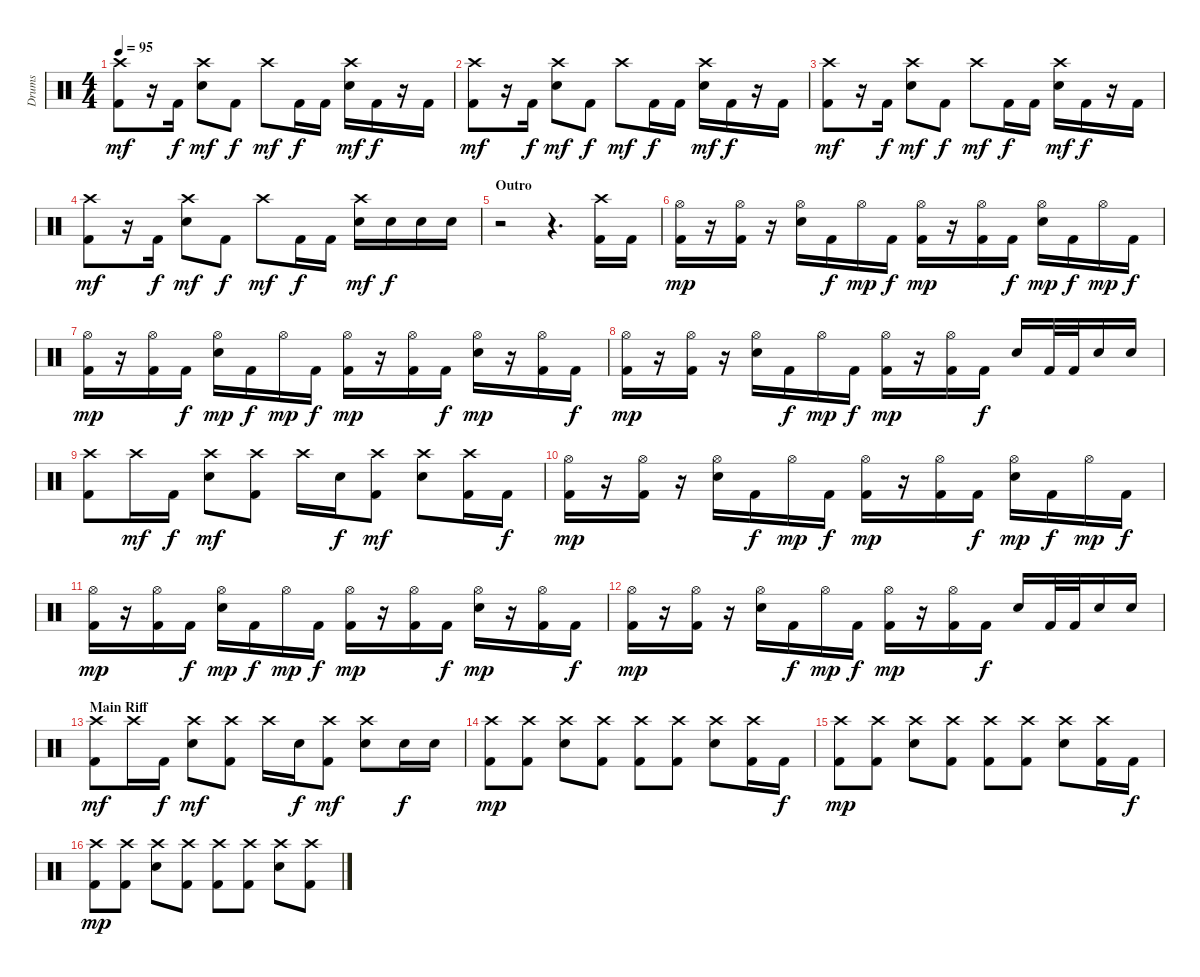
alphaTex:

\track ("Drums" "Drums") {instrument percussion}
\staff {score}
\articulation defaults
\ts (4 4)
\tempo 95
\clef neutral
\ks c
("Crash high (hit)" "Kick (hit) 2").8{dy mf} r.16 "Kick (hit) 2".16{dy f} ("Crash high (hit)" "Electric Snare (hit)").8{dy mf} "Kick (hit) 2".8{dy f} "Crash high (hit)".8{dy mf} "Kick (hit) 2".16{dy f} "Kick (hit) 2".16 ("Crash high (hit)" "Electric Snare (hit)").16{dy mf} "Kick (hit) 2".16{dy f} r.16 "Kick (hit) 2".16 |
("Crash high (hit)" "Kick (hit) 2").8{dy mf} r.16 "Kick (hit) 2".16{dy f} ("Crash high (hit)" "Electric Snare (hit)").8{dy mf} "Kick (hit) 2".8{dy f} "Crash high (hit)".8{dy mf} "Kick (hit) 2".16{dy f} "Kick (hit) 2".16 ("Crash high (hit)" "Electric Snare (hit)").16{dy mf} "Kick (hit) 2".16{dy f} r.16 "Kick (hit) 2".16 |
("Crash high (hit)" "Kick (hit) 2").8{dy mf} r.16 "Kick (hit) 2".16{dy f} ("Crash high (hit)" "Electric Snare (hit)").8{dy mf} "Kick (hit) 2".8{dy f} "Crash high (hit)".8{dy mf} "Kick (hit) 2".16{dy f} "Kick (hit) 2".16 ("Crash high (hit)" "Electric Snare (hit)").16{dy mf} "Kick (hit) 2".16{dy f} r.16 "Kick (hit) 2".16 |
("Crash high (hit)" "Kick (hit) 2").8{dy mf} r.16 "Kick (hit) 2".16{dy f} ("Crash high (hit)" "Electric Snare (hit)").8{dy mf} "Kick (hit) 2".8{dy f} "Crash high (hit)".8{dy mf} "Kick (hit) 2".16{dy f} "Kick (hit) 2".16 ("Crash high (hit)" "Electric Snare (hit)").16{dy mf} "Electric Snare (hit)".16{dy f} "Electric Snare (hit)".16 "Electric Snare (hit)".16 |
\section ("" "Outro")
r.2 r.4{d} ("Crash high (hit)" "Kick (hit) 2").16 "Kick (hit) 2".16 |
("Hi-Hat (open)" "Kick (hit) 2").16{dy mp} r.16 ("Hi-Hat (open)" "Kick (hit) 2").16 r.16 ("Hi-Hat (open)" "Electric Snare (hit)").16 "Kick (hit) 2".16{dy f} "Hi-Hat (open)".16{dy mp} "Kick (hit) 2".16{dy f} ("Hi-Hat (open)" "Kick (hit) 2").16{dy mp} r.16 ("Hi-Hat (open)" "Kick (hit) 2").16 "Kick (hit) 2".16{dy f} ("Hi-Hat (open)" "Electric Snare (hit)").16{dy mp} "Kick (hit) 2".16{dy f} "Hi-Hat (open)".16{dy mp} "Kick (hit) 2".16{dy f} |
("Hi-Hat (open)" "Kick (hit) 2").16{dy mp} r.16 ("Hi-Hat (open)" "Kick (hit) 2").16 "Kick (hit) 2".16{dy f} ("Hi-Hat (open)" "Electric Snare (hit)").16{dy mp} "Kick (hit) 2".16{dy f} "Hi-Hat (open)".16{dy mp} "Kick (hit) 2".16{dy f} ("Hi-Hat (open)" "Kick (hit) 2").16{dy mp} r.16 ("Hi-Hat (open)" "Kick (hit) 2").16 "Kick (hit) 2".16{dy f} ("Hi-Hat (open)" "Electric Snare (hit)").16{dy mp} r.16 ("Hi-Hat (open)" "Kick (hit) 2").16 "Kick (hit) 2".16{dy f} |
("Hi-Hat (open)" "Kick (hit) 2").16{dy mp} r.16 ("Hi-Hat (open)" "Kick (hit) 2").16 r.16 ("Hi-Hat (open)" "Electric Snare (hit)").16 "Kick (hit) 2".16{dy f} "Hi-Hat (open)".16{dy mp} "Kick (hit) 2".16{dy f} ("Hi-Hat (open)" "Kick (hit) 2").16{dy mp} r.16 ("Hi-Hat (open)" "Kick (hit) 2").16 "Kick (hit) 2".16{dy f} "Electric Snare (hit)".16 "Kick (hit) 2".32 "Kick (hit) 2".32 "Electric Snare (hit)".16 "Electric Snare (hit)".16 |
("Crash high (hit)" "Kick (hit) 2").8 "Crash high (hit)".16{dy mf} "Kick (hit) 2".16{dy f} ("Crash high (hit)" "Electric Snare (hit)").8{dy mf} ("Crash high (hit)" "Kick (hit) 2").8 "Crash high (hit)".16 "Electric Snare (hit)".16{dy f} ("Crash high (hit)" "Kick (hit) 2").8{dy mf} ("Crash high (hit)" "Electric Snare (hit)").8 ("Crash high (hit)" "Kick (hit) 2").16 "Kick (hit) 2".16{dy f} |
("Hi-Hat (open)" "Kick (hit) 2").16{dy mp} r.16 ("Hi-Hat (open)" "Kick (hit) 2").16 r.16 ("Hi-Hat (open)" "Electric Snare (hit)").16 "Kick (hit) 2".16{dy f} "Hi-Hat (open)".16{dy mp} "Kick (hit) 2".16{dy f} ("Hi-Hat (open)" "Kick (hit) 2").16{dy mp} r.16 ("Hi-Hat (open)" "Kick (hit) 2").16 "Kick (hit) 2".16{dy f} ("Hi-Hat (open)" "Electric Snare (hit)").16{dy mp} "Kick (hit) 2".16{dy f} "Hi-Hat (open)".16{dy mp} "Kick (hit) 2".16{dy f} |
("Hi-Hat (open)" "Kick (hit) 2").16{dy mp} r.16 ("Hi-Hat (open)" "Kick (hit) 2").16 "Kick (hit) 2".16{dy f} ("Hi-Hat (open)" "Electric Snare (hit)").16{dy mp} "Kick (hit) 2".16{dy f} "Hi-Hat (open)".16{dy mp} "Kick (hit) 2".16{dy f} ("Hi-Hat (open)" "Kick (hit) 2").16{dy mp} r.16 ("Hi-Hat (open)" "Kick (hit) 2").16 "Kick (hit) 2".16{dy f} ("Hi-Hat (open)" "Electric Snare (hit)").16{dy mp} r.16 ("Hi-Hat (open)" "Kick (hit) 2").16 "Kick (hit) 2".16{dy f} |
("Hi-Hat (open)" "Kick (hit) 2").16{dy mp} r.16 ("Hi-Hat (open)" "Kick (hit) 2").16 r.16 ("Hi-Hat (open)" "Electric Snare (hit)").16 "Kick (hit) 2".16{dy f} "Hi-Hat (open)".16{dy mp} "Kick (hit) 2".16{dy f} ("Hi-Hat (open)" "Kick (hit) 2").16{dy mp} r.16 ("Hi-Hat (open)" "Kick (hit) 2").16 "Kick (hit) 2".16{dy f} "Electric Snare (hit)".16 "Kick (hit) 2".32 "Kick (hit) 2".32 "Electric Snare (hit)".16 "Electric Snare (hit)".16 |
\section ("" "Main Riff")
("Crash high (hit)" "Kick (hit) 2").8{dy mf} "Crash high (hit)".16 "Kick (hit) 2".16{dy f} ("Crash high (hit)" "Electric Snare (hit)").8{dy mf} ("Crash high (hit)" "Kick (hit) 2").8 "Crash high (hit)".16 "Electric Snare (hit)".16{dy f} ("Crash high (hit)" "Kick (hit) 2").8{dy mf} ("Crash high (hit)" "Electric Snare (hit)").8 "Electric Snare (hit)".16{dy f} "Electric Snare (hit)".16 |
("Crash high (hit)" "Kick (hit) 2").8{dy mp} ("Crash high (hit)" "Kick (hit) 2").8 ("Crash high (hit)" "Electric Snare (hit)").8 ("Crash high (hit)" "Kick (hit) 2").8 ("Crash high (hit)" "Kick (hit) 2").8 ("Crash high (hit)" "Kick (hit) 2").8 ("Crash high (hit)" "Electric Snare (hit)").8 ("Crash high (hit)" "Kick (hit) 2").16 "Kick (hit) 2".16{dy f} |
("Crash high (hit)" "Kick (hit) 2").8{dy mp} ("Crash high (hit)" "Kick (hit) 2").8 ("Crash high (hit)" "Electric Snare (hit)").8 ("Crash high (hit)" "Kick (hit) 2").8 ("Crash high (hit)" "Kick (hit) 2").8 ("Crash high (hit)" "Kick (hit) 2").8 ("Crash high (hit)" "Electric Snare (hit)").8 ("Crash high (hit)" "Kick (hit) 2").16 "Kick (hit) 2".16{dy f} |
("Crash high (hit)" "Kick (hit) 2").8{dy mp} ("Crash high (hit)" "Kick (hit) 2").8 ("Crash high (hit)" "Electric Snare (hit)").8 ("Crash high (hit)" "Kick (hit) 2").8 ("Crash high (hit)" "Kick (hit) 2").8 ("Crash high (hit)" "Kick (hit) 2").8 ("Crash high (hit)" "Electric Snare (hit)").8 ("Crash high (hit)" "Kick (hit) 2").8
